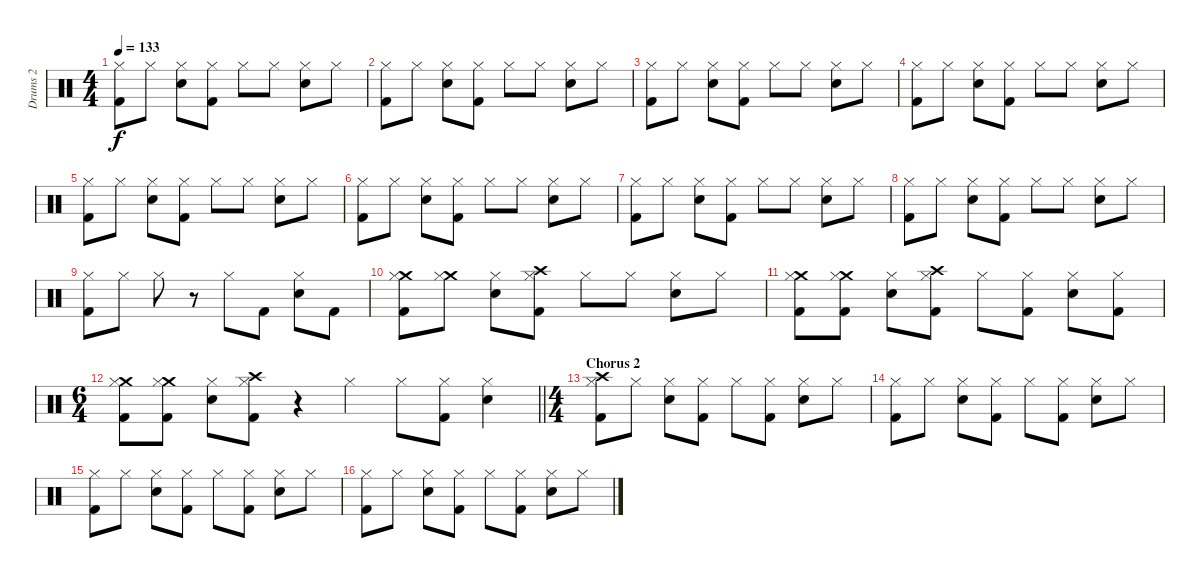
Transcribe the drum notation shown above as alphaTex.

\track ("Drums 2" "Drums 2") {instrument percussion}
\staff {score}
\articulation defaults
\ts (4 4)
\tempo 133
\clef neutral
\ks c
("Hi-Hat (closed)" "Kick (hit) 2").8{dy f} "Hi-Hat (closed)".8 ("Snare (hit) 2" "Hi-Hat (closed)").8 ("Hi-Hat (closed)" "Kick (hit) 2").8 "Hi-Hat (closed)".8 "Hi-Hat (closed)".8 ("Snare (hit) 2" "Hi-Hat (closed)").8 "Hi-Hat (closed)".8 |
("Hi-Hat (closed)" "Kick (hit) 2").8 "Hi-Hat (closed)".8 ("Snare (hit) 2" "Hi-Hat (closed)").8 ("Hi-Hat (closed)" "Kick (hit) 2").8 "Hi-Hat (closed)".8 "Hi-Hat (closed)".8 ("Snare (hit) 2" "Hi-Hat (closed)").8 "Hi-Hat (closed)".8 |
("Hi-Hat (closed)" "Kick (hit) 2").8 "Hi-Hat (closed)".8 ("Snare (hit) 2" "Hi-Hat (closed)").8 ("Hi-Hat (closed)" "Kick (hit) 2").8 "Hi-Hat (closed)".8 "Hi-Hat (closed)".8 ("Snare (hit) 2" "Hi-Hat (closed)").8 "Hi-Hat (closed)".8 |
("Hi-Hat (closed)" "Kick (hit) 2").8 "Hi-Hat (closed)".8 ("Snare (hit) 2" "Hi-Hat (closed)").8 ("Hi-Hat (closed)" "Kick (hit) 2").8 "Hi-Hat (closed)".8 "Hi-Hat (closed)".8 ("Snare (hit) 2" "Hi-Hat (closed)").8 "Hi-Hat (closed)".8 |
("Hi-Hat (closed)" "Kick (hit) 2").8 "Hi-Hat (closed)".8 ("Snare (hit) 2" "Hi-Hat (closed)").8 ("Hi-Hat (closed)" "Kick (hit) 2").8 "Hi-Hat (closed)".8 "Hi-Hat (closed)".8 ("Snare (hit) 2" "Hi-Hat (closed)").8 "Hi-Hat (closed)".8 |
("Hi-Hat (closed)" "Kick (hit) 2").8 "Hi-Hat (closed)".8 ("Snare (hit) 2" "Hi-Hat (closed)").8 ("Hi-Hat (closed)" "Kick (hit) 2").8 "Hi-Hat (closed)".8 "Hi-Hat (closed)".8 ("Snare (hit) 2" "Hi-Hat (closed)").8 "Hi-Hat (closed)".8 |
("Hi-Hat (closed)" "Kick (hit) 2").8 "Hi-Hat (closed)".8 ("Snare (hit) 2" "Hi-Hat (closed)").8 ("Hi-Hat (closed)" "Kick (hit) 2").8 "Hi-Hat (closed)".8 "Hi-Hat (closed)".8 ("Snare (hit) 2" "Hi-Hat (closed)").8 "Hi-Hat (closed)".8 |
("Hi-Hat (closed)" "Kick (hit) 2").8 "Hi-Hat (closed)".8 ("Snare (hit) 2" "Hi-Hat (closed)").8 ("Hi-Hat (closed)" "Kick (hit) 2").8 "Hi-Hat (closed)".8 "Hi-Hat (closed)".8 ("Snare (hit) 2" "Hi-Hat (closed)").8 "Hi-Hat (closed)".8 |
("Hi-Hat (closed)" "Kick (hit) 2").8 "Hi-Hat (closed)".8 "Hi-Hat (closed)".8 r.8 "Hi-Hat (closed)".8 "Kick (hit) 2".8 ("Snare (hit) 2" "Hi-Hat (closed)").8 "Kick (hit) 2".8 |
("Crash medium (hit)" "Hi-Hat (closed)" "Kick (hit) 2").8 ("Crash medium (hit)" "Hi-Hat (closed)").8 ("Snare (hit) 2" "Hi-Hat (closed)").8 ("Crash high (hit)" "Hi-Hat (closed)" "Kick (hit) 2").8 "Hi-Hat (closed)".8 "Hi-Hat (closed)".8 ("Snare (hit) 2" "Hi-Hat (closed)").8 "Hi-Hat (closed)".8 |
("Crash medium (hit)" "Hi-Hat (closed)" "Kick (hit) 2").8 ("Crash medium (hit)" "Hi-Hat (closed)" "Kick (hit) 2").8 ("Snare (hit) 2" "Hi-Hat (closed)").8 ("Crash high (hit)" "Hi-Hat (closed)" "Kick (hit) 2").8 "Hi-Hat (closed)".8 ("Hi-Hat (closed)" "Kick (hit) 2").8 ("Snare (hit) 2" "Hi-Hat (closed)").8 ("Hi-Hat (closed)" "Kick (hit) 2").8 |
\ts (6 4)
\barLineRight lightlight
("Crash medium (hit)" "Hi-Hat (closed)" "Kick (hit) 2").8 ("Crash medium (hit)" "Hi-Hat (closed)" "Kick (hit) 2").8 ("Snare (hit) 2" "Hi-Hat (closed)").8 ("Crash high (hit)" "Hi-Hat (closed)" "Kick (hit) 2").8 r.4 "Hi-Hat (closed)".4 "Hi-Hat (closed)".8 ("Hi-Hat (closed)" "Kick (hit) 2").8 ("Snare (hit) 2" "Hi-Hat (closed)").4 |
\ts (4 4)
\section ("" "Chorus 2")
("Crash high (hit)" "Hi-Hat (closed)" "Kick (hit) 2").8 "Hi-Hat (closed)".8 ("Snare (hit) 2" "Hi-Hat (closed)").8 ("Hi-Hat (closed)" "Kick (hit) 2").8 "Hi-Hat (closed)".8 ("Hi-Hat (closed)" "Kick (hit) 2").8 ("Snare (hit) 2" "Hi-Hat (closed)").8 "Hi-Hat (closed)".8 |
("Hi-Hat (closed)" "Kick (hit) 2").8 "Hi-Hat (closed)".8 ("Snare (hit) 2" "Hi-Hat (closed)").8 ("Hi-Hat (closed)" "Kick (hit) 2").8 "Hi-Hat (closed)".8 ("Hi-Hat (closed)" "Kick (hit) 2").8 ("Snare (hit) 2" "Hi-Hat (closed)").8 "Hi-Hat (closed)".8 |
("Hi-Hat (closed)" "Kick (hit) 2").8 "Hi-Hat (closed)".8 ("Snare (hit) 2" "Hi-Hat (closed)").8 ("Hi-Hat (closed)" "Kick (hit) 2").8 "Hi-Hat (closed)".8 ("Hi-Hat (closed)" "Kick (hit) 2").8 ("Snare (hit) 2" "Hi-Hat (closed)").8 "Hi-Hat (closed)".8 |
("Hi-Hat (closed)" "Kick (hit) 2").8 "Hi-Hat (closed)".8 ("Snare (hit) 2" "Hi-Hat (closed)").8 ("Hi-Hat (closed)" "Kick (hit) 2").8 "Hi-Hat (closed)".8 ("Hi-Hat (closed)" "Kick (hit) 2").8 ("Snare (hit) 2" "Hi-Hat (closed)").8 "Hi-Hat (closed)".8
